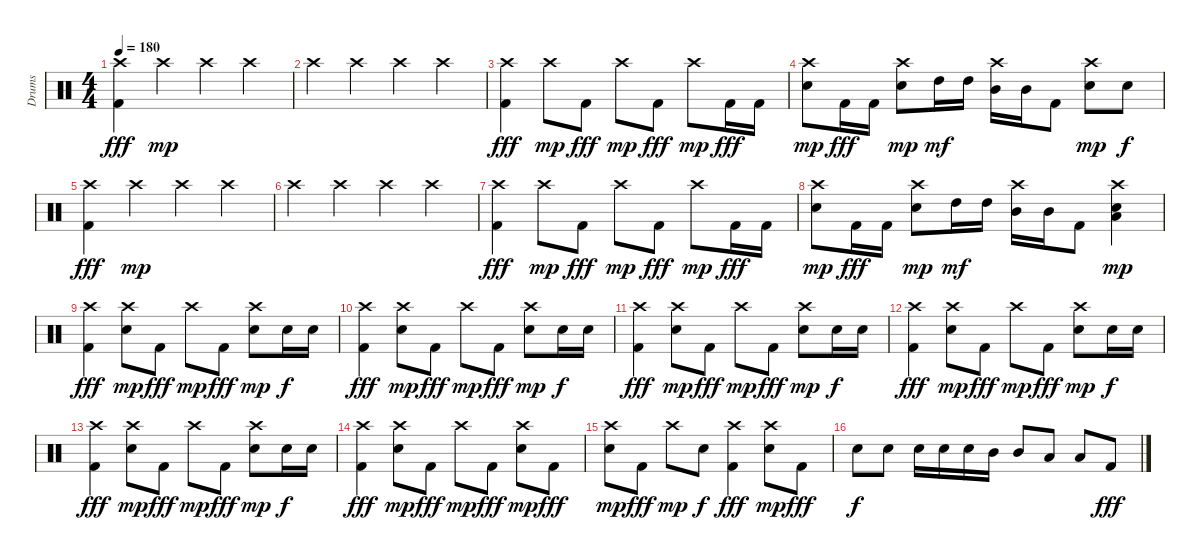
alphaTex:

\track ("Drums" "Drums") {instrument percussion}
\staff {score}
\articulation defaults
\ts (4 4)
\tempo 180
\clef neutral
\ks c
("Crash high (hit)" "Kick (hit) 2").4{dy fff} "Crash high (hit)".4{dy mp} "Crash high (hit)".4 "Crash high (hit)".4 |
"Crash high (hit)".4 "Crash high (hit)".4 "Crash high (hit)".4 "Crash high (hit)".4 |
("Crash high (hit)" "Kick (hit) 2").4{dy fff} "Crash high (hit)".8{dy mp} "Kick (hit) 2".8{dy fff} "Crash high (hit)".8{dy mp} "Kick (hit) 2".8{dy fff} "Crash high (hit)".8{dy mp} "Kick (hit) 2".16{dy fff} "Kick (hit) 2".16 |
("Crash high (hit)" "Electric Snare (hit)").8{dy mp} "Kick (hit) 2".16{dy fff} "Kick (hit) 2".16 ("Crash high (hit)" "Electric Snare (hit)").8{dy mp} "High Tom (hit)".16{dy mf} "High Tom (hit)".16 ("Crash high (hit)" "Mid Tom (hit)").16 "Mid Tom (hit)".16 "Kick (hit) 2".8 ("Crash high (hit)" "Electric Snare (hit)").8{dy mp} "Electric Snare (hit)".8{dy f} |
("Crash high (hit)" "Kick (hit) 2").4{dy fff} "Crash high (hit)".4{dy mp} "Crash high (hit)".4 "Crash high (hit)".4 |
"Crash high (hit)".4 "Crash high (hit)".4 "Crash high (hit)".4 "Crash high (hit)".4 |
("Crash high (hit)" "Kick (hit) 2").4{dy fff} "Crash high (hit)".8{dy mp} "Kick (hit) 2".8{dy fff} "Crash high (hit)".8{dy mp} "Kick (hit) 2".8{dy fff} "Crash high (hit)".8{dy mp} "Kick (hit) 2".16{dy fff} "Kick (hit) 2".16 |
("Crash high (hit)" "Electric Snare (hit)").8{dy mp} "Kick (hit) 2".16{dy fff} "Kick (hit) 2".16 ("Crash high (hit)" "Electric Snare (hit)").8{dy mp} "High Tom (hit)".16{dy mf} "High Tom (hit)".16 ("Crash high (hit)" "Mid Tom (hit)").16 "Mid Tom (hit)".16 "Kick (hit) 2".8 ("Crash high (hit)" "Electric Snare (hit)" "Low Floor Tom (hit)").4{dy mp} |
("Crash high (hit)" "Kick (hit) 2").4{dy fff} ("Crash high (hit)" "Electric Snare (hit)").8{dy mp} "Kick (hit) 2".8{dy fff} "Crash high (hit)".8{dy mp} "Kick (hit) 2".8{dy fff} ("Crash high (hit)" "Electric Snare (hit)").8{dy mp} "Electric Snare (hit)".16{dy f} "Electric Snare (hit)".16 |
("Crash high (hit)" "Kick (hit) 2").4{dy fff} ("Crash high (hit)" "Electric Snare (hit)").8{dy mp} "Kick (hit) 2".8{dy fff} "Crash high (hit)".8{dy mp} "Kick (hit) 2".8{dy fff} ("Crash high (hit)" "Electric Snare (hit)").8{dy mp} "Electric Snare (hit)".16{dy f} "Electric Snare (hit)".16 |
("Crash high (hit)" "Kick (hit) 2").4{dy fff} ("Crash high (hit)" "Electric Snare (hit)").8{dy mp} "Kick (hit) 2".8{dy fff} "Crash high (hit)".8{dy mp} "Kick (hit) 2".8{dy fff} ("Crash high (hit)" "Electric Snare (hit)").8{dy mp} "Electric Snare (hit)".16{dy f} "Electric Snare (hit)".16 |
("Crash high (hit)" "Kick (hit) 2").4{dy fff} ("Crash high (hit)" "Electric Snare (hit)").8{dy mp} "Kick (hit) 2".8{dy fff} "Crash high (hit)".8{dy mp} "Kick (hit) 2".8{dy fff} ("Crash high (hit)" "Electric Snare (hit)").8{dy mp} "Electric Snare (hit)".16{dy f} "Electric Snare (hit)".16 |
("Crash high (hit)" "Kick (hit) 2").4{dy fff} ("Crash high (hit)" "Electric Snare (hit)").8{dy mp} "Kick (hit) 2".8{dy fff} "Crash high (hit)".8{dy mp} "Kick (hit) 2".8{dy fff} ("Crash high (hit)" "Electric Snare (hit)").8{dy mp} "Electric Snare (hit)".16{dy f} "Electric Snare (hit)".16 |
("Crash high (hit)" "Kick (hit) 2").4{dy fff} ("Crash high (hit)" "Electric Snare (hit)").8{dy mp} "Kick (hit) 2".8{dy fff} "Crash high (hit)".8{dy mp} "Kick (hit) 2".8{dy fff} ("Crash high (hit)" "Electric Snare (hit)").8{dy mp} "Kick (hit) 2".8{dy fff} |
("Crash high (hit)" "Electric Snare (hit)").8{dy mp} "Kick (hit) 2".8{dy fff} "Crash high (hit)".8{dy mp} "Electric Snare (hit)".8{dy f} ("Crash high (hit)" "Kick (hit) 2").4{dy fff} ("Crash high (hit)" "Electric Snare (hit)").8{dy mp} "Kick (hit) 2".8{dy fff} |
"Electric Snare (hit)".8{dy f} "Electric Snare (hit)".8 "Electric Snare (hit)".16 "Electric Snare (hit)".16 "Electric Snare (hit)".16 "Mid Tom (hit)".16 "Mid Tom (hit)".8 "Low Tom (hit)".8 "Low Floor Tom (hit)".8 "Kick (hit) 2".8{dy fff}
